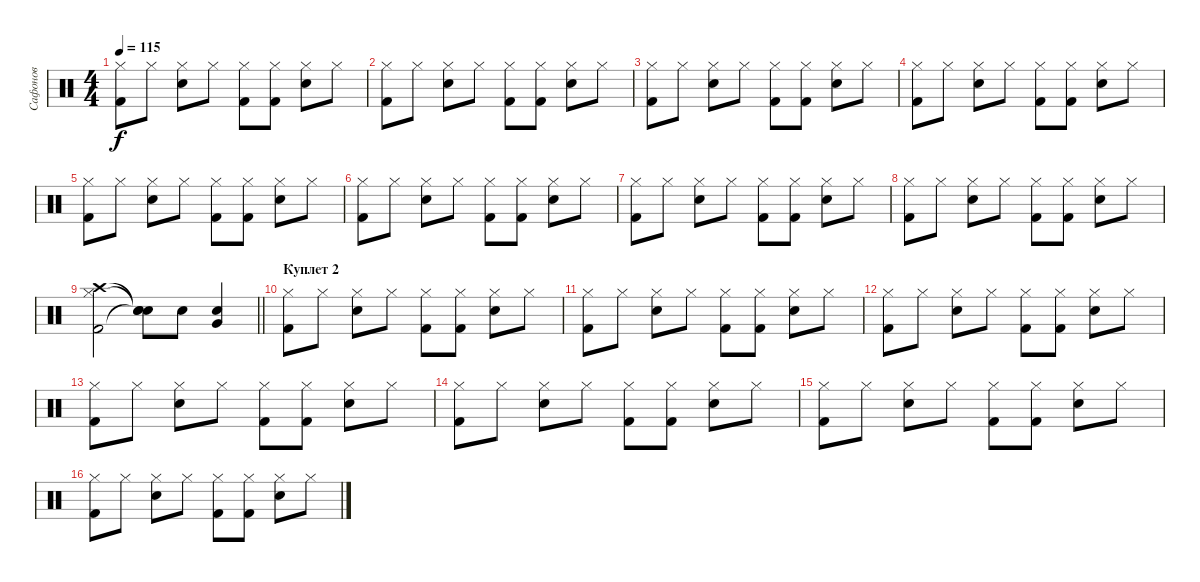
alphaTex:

\track ("Сафонов" "Сафонов") {instrument percussion}
\staff {score}
\articulation defaults
\ts (4 4)
\tempo 115
\clef neutral
\ks c
("Hi-Hat (closed)" "Kick (hit) 2").8{dy f} "Hi-Hat (closed)".8 ("Hi-Hat (closed)" "Electric Snare (hit)").8 "Hi-Hat (closed)".8 ("Hi-Hat (closed)" "Kick (hit) 2").8 ("Hi-Hat (closed)" "Kick (hit) 2").8 ("Hi-Hat (closed)" "Electric Snare (hit)").8 "Hi-Hat (closed)".8 |
("Hi-Hat (closed)" "Kick (hit) 2").8 "Hi-Hat (closed)".8 ("Hi-Hat (closed)" "Electric Snare (hit)").8 "Hi-Hat (closed)".8 ("Hi-Hat (closed)" "Kick (hit) 2").8 ("Hi-Hat (closed)" "Kick (hit) 2").8 ("Hi-Hat (closed)" "Electric Snare (hit)").8 "Hi-Hat (closed)".8 |
("Hi-Hat (closed)" "Kick (hit) 2").8 "Hi-Hat (closed)".8 ("Hi-Hat (closed)" "Electric Snare (hit)").8 "Hi-Hat (closed)".8 ("Hi-Hat (closed)" "Kick (hit) 2").8 ("Hi-Hat (closed)" "Kick (hit) 2").8 ("Hi-Hat (closed)" "Electric Snare (hit)").8 "Hi-Hat (closed)".8 |
("Hi-Hat (closed)" "Kick (hit) 2").8 "Hi-Hat (closed)".8 ("Hi-Hat (closed)" "Electric Snare (hit)").8 "Hi-Hat (closed)".8 ("Hi-Hat (closed)" "Kick (hit) 2").8 ("Hi-Hat (closed)" "Kick (hit) 2").8 ("Hi-Hat (closed)" "Electric Snare (hit)").8 "Hi-Hat (closed)".8 |
("Hi-Hat (closed)" "Kick (hit) 2").8 "Hi-Hat (closed)".8 ("Hi-Hat (closed)" "Electric Snare (hit)").8 "Hi-Hat (closed)".8 ("Hi-Hat (closed)" "Kick (hit) 2").8 ("Hi-Hat (closed)" "Kick (hit) 2").8 ("Hi-Hat (closed)" "Electric Snare (hit)").8 "Hi-Hat (closed)".8 |
("Hi-Hat (closed)" "Kick (hit) 2").8 "Hi-Hat (closed)".8 ("Hi-Hat (closed)" "Electric Snare (hit)").8 "Hi-Hat (closed)".8 ("Hi-Hat (closed)" "Kick (hit) 2").8 ("Hi-Hat (closed)" "Kick (hit) 2").8 ("Hi-Hat (closed)" "Electric Snare (hit)").8 "Hi-Hat (closed)".8 |
("Hi-Hat (closed)" "Kick (hit) 2").8 "Hi-Hat (closed)".8 ("Hi-Hat (closed)" "Electric Snare (hit)").8 "Hi-Hat (closed)".8 ("Hi-Hat (closed)" "Kick (hit) 2").8 ("Hi-Hat (closed)" "Kick (hit) 2").8 ("Hi-Hat (closed)" "Electric Snare (hit)").8 "Hi-Hat (closed)".8 |
("Hi-Hat (closed)" "Kick (hit) 2").8 "Hi-Hat (closed)".8 ("Hi-Hat (closed)" "Electric Snare (hit)").8 "Hi-Hat (closed)".8 ("Hi-Hat (closed)" "Kick (hit) 2").8 ("Hi-Hat (closed)" "Kick (hit) 2").8 ("Hi-Hat (closed)" "Electric Snare (hit)").8 "Hi-Hat (closed)".8 |
\barLineRight lightlight
("Crash high (hit)" "Hi-Hat (closed)" "Kick (hit) 2").2 ("Snare (hit)"{t} "Snare (hit)"{t} "Snare (hit)"{t}).8 "Electric Snare (hit)".8 ("Very Low Tom (hit)" "Electric Snare (hit)").4 |
\section ("" "Куплет 2")
("Hi-Hat (closed)" "Kick (hit) 2").8 "Hi-Hat (closed)".8 ("Hi-Hat (closed)" "Electric Snare (hit)").8 "Hi-Hat (closed)".8 ("Hi-Hat (closed)" "Kick (hit) 2").8 ("Hi-Hat (closed)" "Kick (hit) 2").8 ("Hi-Hat (closed)" "Electric Snare (hit)").8 "Hi-Hat (closed)".8 |
("Hi-Hat (closed)" "Kick (hit) 2").8 "Hi-Hat (closed)".8 ("Hi-Hat (closed)" "Electric Snare (hit)").8 "Hi-Hat (closed)".8 ("Hi-Hat (closed)" "Kick (hit) 2").8 ("Hi-Hat (closed)" "Kick (hit) 2").8 ("Hi-Hat (closed)" "Electric Snare (hit)").8 "Hi-Hat (closed)".8 |
("Hi-Hat (closed)" "Kick (hit) 2").8 "Hi-Hat (closed)".8 ("Hi-Hat (closed)" "Electric Snare (hit)").8 "Hi-Hat (closed)".8 ("Hi-Hat (closed)" "Kick (hit) 2").8 ("Hi-Hat (closed)" "Kick (hit) 2").8 ("Hi-Hat (closed)" "Electric Snare (hit)").8 "Hi-Hat (closed)".8 |
("Hi-Hat (closed)" "Kick (hit) 2").8 "Hi-Hat (closed)".8 ("Hi-Hat (closed)" "Electric Snare (hit)").8 "Hi-Hat (closed)".8 ("Hi-Hat (closed)" "Kick (hit) 2").8 ("Hi-Hat (closed)" "Kick (hit) 2").8 ("Hi-Hat (closed)" "Electric Snare (hit)").8 "Hi-Hat (closed)".8 |
("Hi-Hat (closed)" "Kick (hit) 2").8 "Hi-Hat (closed)".8 ("Hi-Hat (closed)" "Electric Snare (hit)").8 "Hi-Hat (closed)".8 ("Hi-Hat (closed)" "Kick (hit) 2").8 ("Hi-Hat (closed)" "Kick (hit) 2").8 ("Hi-Hat (closed)" "Electric Snare (hit)").8 "Hi-Hat (closed)".8 |
("Hi-Hat (closed)" "Kick (hit) 2").8 "Hi-Hat (closed)".8 ("Hi-Hat (closed)" "Electric Snare (hit)").8 "Hi-Hat (closed)".8 ("Hi-Hat (closed)" "Kick (hit) 2").8 ("Hi-Hat (closed)" "Kick (hit) 2").8 ("Hi-Hat (closed)" "Electric Snare (hit)").8 "Hi-Hat (closed)".8 |
("Hi-Hat (closed)" "Kick (hit) 2").8 "Hi-Hat (closed)".8 ("Hi-Hat (closed)" "Electric Snare (hit)").8 "Hi-Hat (closed)".8 ("Hi-Hat (closed)" "Kick (hit) 2").8 ("Hi-Hat (closed)" "Kick (hit) 2").8 ("Hi-Hat (closed)" "Electric Snare (hit)").8 "Hi-Hat (closed)".8
